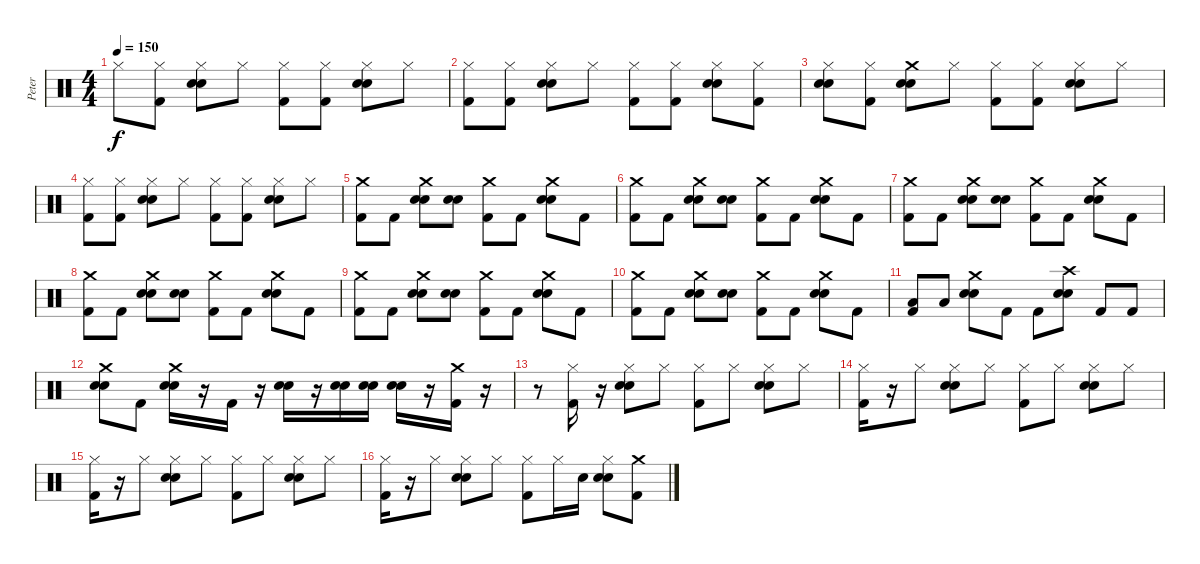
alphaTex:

\track ("Peter" "Peter") {instrument percussion}
\staff {score}
\articulation defaults
\ts (4 4)
\tempo 150
\clef neutral
\ks c "Hi-Hat (closed)".8{dy f}
("Hi-Hat (closed)" "Kick (hit) 2").8 ("Hi-Hat (closed)" "Snare (hit) 2" "Electric Snare (hit)").8 "Hi-Hat (closed)".8 ("Hi-Hat (closed)" "Kick (hit) 2").8 ("Hi-Hat (closed)" "Kick (hit) 2").8 ("Hi-Hat (closed)" "Snare (hit) 2" "Electric Snare (hit)").8 "Hi-Hat (closed)".8 |
("Kick (hit) 2" "Hi-Hat (closed)").8 ("Hi-Hat (closed)" "Kick (hit) 2").8 ("Hi-Hat (closed)" "Snare (hit) 2" "Electric Snare (hit)").8 "Hi-Hat (closed)".8 ("Hi-Hat (closed)" "Kick (hit) 2").8 ("Hi-Hat (closed)" "Kick (hit) 2").8 ("Hi-Hat (closed)" "Snare (hit) 2" "Electric Snare (hit)").8 ("Kick (hit) 2" "Hi-Hat (closed)").8 |
("Snare (hit) 2" "Electric Snare (hit)" "Hi-Hat (closed)").8 ("Hi-Hat (closed)" "Kick (hit) 2").8 ("Crash medium (hit)" "Snare (hit) 2" "Electric Snare (hit)").8 "Hi-Hat (closed)".8 ("Hi-Hat (closed)" "Kick (hit) 2").8 ("Hi-Hat (closed)" "Kick (hit) 2").8 ("Hi-Hat (closed)" "Snare (hit) 2" "Electric Snare (hit)").8 "Hi-Hat (closed)".8 |
("Kick (hit) 2" "Hi-Hat (closed)").8 ("Hi-Hat (closed)" "Kick (hit) 2").8 ("Hi-Hat (closed)" "Snare (hit) 2" "Electric Snare (hit)").8 "Hi-Hat (closed)".8 ("Hi-Hat (closed)" "Kick (hit) 2").8 ("Hi-Hat (closed)" "Kick (hit) 2").8 ("Hi-Hat (closed)" "Electric Snare (hit)" "Snare (hit) 2").8 "Hi-Hat (closed)".8 |
("Crash medium (hit)" "Kick (hit) 2").8 "Kick (hit) 2".8 ("Crash medium (hit)" "Snare (hit) 2" "Electric Snare (hit)").8 ("Electric Snare (hit)" "Snare (hit) 2").8 ("Crash medium (hit)" "Kick (hit) 2").8 "Kick (hit) 2".8 ("Crash medium (hit)" "Electric Snare (hit)" "Snare (hit) 2").8 "Kick (hit) 2".8 |
("Crash medium (hit)" "Kick (hit) 2").8 "Kick (hit) 2".8 ("Crash medium (hit)" "Electric Snare (hit)" "Snare (hit) 2").8 ("Electric Snare (hit)" "Snare (hit) 2").8 ("Crash medium (hit)" "Kick (hit) 2").8 "Kick (hit) 2".8 ("Crash medium (hit)" "Electric Snare (hit)" "Snare (hit) 2").8 "Kick (hit) 2".8 |
("Crash medium (hit)" "Kick (hit) 2").8 "Kick (hit) 2".8 ("Crash medium (hit)" "Snare (hit) 2" "Electric Snare (hit)").8 ("Electric Snare (hit)" "Snare (hit) 2").8 ("Crash medium (hit)" "Kick (hit) 2").8 "Kick (hit) 2".8 ("Crash medium (hit)" "Electric Snare (hit)" "Snare (hit) 2").8 "Kick (hit) 2".8 |
("Crash medium (hit)" "Kick (hit) 2").8 "Kick (hit) 2".8 ("Crash medium (hit)" "Electric Snare (hit)" "Snare (hit) 2").8 ("Electric Snare (hit)" "Snare (hit) 2").8 ("Crash medium (hit)" "Kick (hit) 2").8 "Kick (hit) 2".8 ("Crash medium (hit)" "Electric Snare (hit)" "Snare (hit) 2").8 "Kick (hit) 2".8 |
("Crash medium (hit)" "Kick (hit) 2").8 "Kick (hit) 2".8 ("Crash medium (hit)" "Snare (hit) 2" "Electric Snare (hit)").8 ("Electric Snare (hit)" "Snare (hit) 2").8 ("Crash medium (hit)" "Kick (hit) 2").8 "Kick (hit) 2".8 ("Crash medium (hit)" "Electric Snare (hit)" "Snare (hit) 2").8 "Kick (hit) 2".8 |
("Crash medium (hit)" "Kick (hit) 2").8 "Kick (hit) 2".8 ("Crash medium (hit)" "Electric Snare (hit)" "Snare (hit) 2").8 ("Electric Snare (hit)" "Snare (hit) 2").8 ("Crash medium (hit)" "Kick (hit) 2").8 "Kick (hit) 2".8 ("Crash medium (hit)" "Electric Snare (hit)" "Snare (hit) 2").8 "Kick (hit) 2".8 |
("Kick (hit) 2" "Low Floor Tom (hit)").8 "Low Floor Tom (hit)".8 ("Electric Snare (hit)" "Crash medium (hit)" "Snare (hit) 2").8 "Kick (hit) 2".8 "Kick (hit) 2".8 ("Electric Snare (hit)" "Crash high (hit)" "Snare (hit) 2").8 "Kick (hit) 2".8 "Kick (hit) 2".8 |
("Crash medium (hit)" "Snare (hit) 2" "Electric Snare (hit)").8 "Kick (hit) 2".8 ("Crash medium (hit)" "Electric Snare (hit)" "Snare (hit) 2").16 r.16 "Kick (hit) 2".16 r.16 ("Electric Snare (hit)" "Snare (hit) 2").16 r.16 ("Electric Snare (hit)" "Snare (hit) 2").16 ("Electric Snare (hit)" "Snare (hit) 2").16 ("Electric Snare (hit)" "Snare (hit) 2").16 r.16 ("Crash medium (hit)" "Kick (hit) 2").16 r.16 |
r.8 ("Hi-Hat (closed)" "Kick (hit) 2").16 r.16 ("Hi-Hat (closed)" "Electric Snare (hit)" "Snare (hit) 2").8 "Hi-Hat (closed)".8 ("Hi-Hat (closed)" "Kick (hit) 2").8 "Hi-Hat (closed)".8 ("Hi-Hat (closed)" "Electric Snare (hit)" "Snare (hit) 2").8 "Hi-Hat (closed)".8 |
("Hi-Hat (closed)" "Kick (hit) 2").16 r.16 "Hi-Hat (closed)".8 ("Electric Snare (hit)" "Snare (hit) 2" "Hi-Hat (closed)").8 "Hi-Hat (closed)".8 ("Kick (hit) 2" "Hi-Hat (closed)").8 "Hi-Hat (closed)".8 ("Electric Snare (hit)" "Snare (hit) 2" "Hi-Hat (closed)").8 "Hi-Hat (closed)".8 |
("Hi-Hat (closed)" "Kick (hit) 2").16 r.16 "Hi-Hat (closed)".8 ("Electric Snare (hit)" "Hi-Hat (closed)" "Snare (hit) 2").8 "Hi-Hat (closed)".8 ("Hi-Hat (closed)" "Kick (hit) 2").8 "Hi-Hat (closed)".8 ("Hi-Hat (closed)" "Electric Snare (hit)" "Snare (hit) 2").8 "Hi-Hat (closed)".8 |
("Kick (hit) 2" "Hi-Hat (closed)").16 r.16 "Hi-Hat (closed)".8 ("Electric Snare (hit)" "Hi-Hat (closed)" "Snare (hit) 2").8 "Hi-Hat (closed)".8 ("Hi-Hat (closed)" "Kick (hit) 2").8 "Hi-Hat (closed)".16 "Snare (hit) 2".16 ("Hi-Hat (closed)" "Electric Snare (hit)" "Snare (hit) 2").8 ("Kick (hit) 2" "Crash medium (hit)").8
